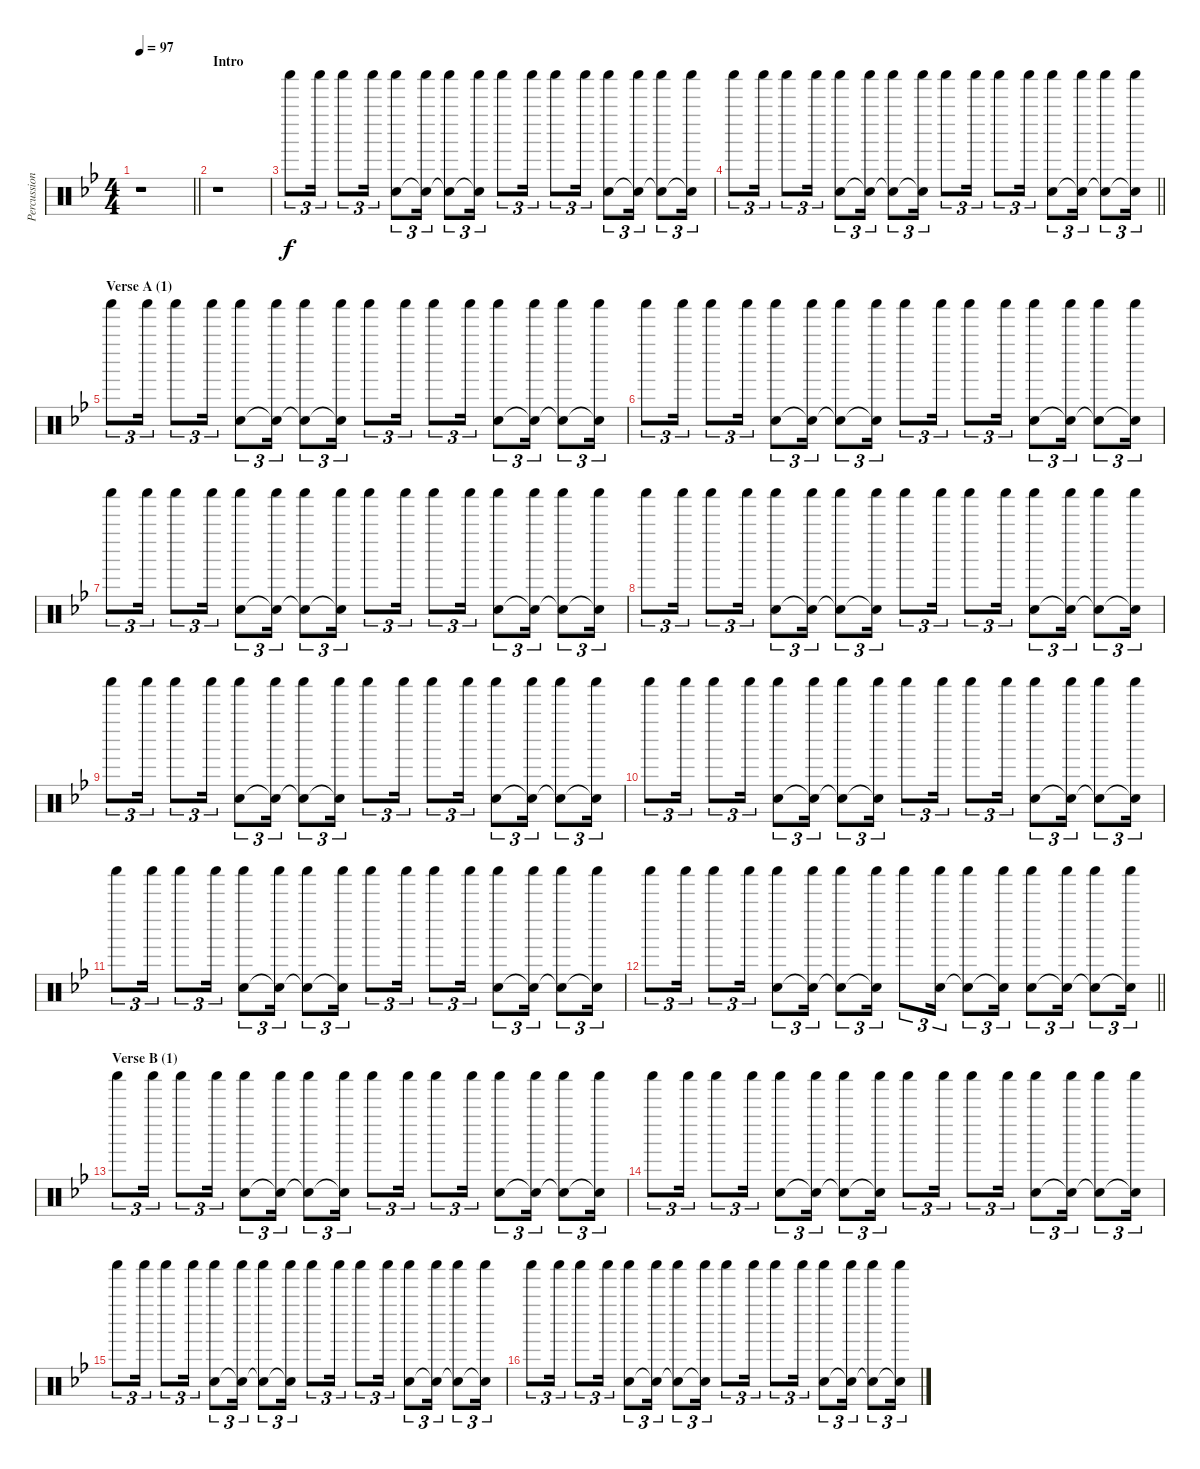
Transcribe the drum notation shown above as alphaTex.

\track ("Percussion" "Percussion") {instrument percussion}
\staff {score}
\articulation defaults
\ts (4 4)
\tempo 97
\clef neutral
\barLineRight lightlight
\ks bb
r.1{dy f} |
\section ("" "Intro")
r.1 |
"Shaker (hit)".8{tu (3 2)} "Shaker (hit)".16{tu (3 2)} "Shaker (hit)".8{tu (3 2)} "Shaker (hit)".16{tu (3 2)} ("Hand Clap (hit)" "Shaker (hit)").8{tu (3 2)} ("Snare (hit)"{t} "Shaker (hit)").16{tu (3 2)} ("Hand Clap (hit)"{t} "Shaker (hit)").8{tu (3 2)} ("Snare (hit)"{t} "Shaker (hit)").16{tu (3 2)} "Shaker (hit)".8{tu (3 2)} "Shaker (hit)".16{tu (3 2)} "Shaker (hit)".8{tu (3 2)} "Shaker (hit)".16{tu (3 2)} ("Hand Clap (hit)" "Shaker (hit)").8{tu (3 2)} ("Snare (hit)"{t} "Shaker (hit)").16{tu (3 2)} ("Hand Clap (hit)"{t} "Shaker (hit)").8{tu (3 2)} ("Snare (hit)"{t} "Shaker (hit)").16{tu (3 2)} |
\barLineRight lightlight "Shaker (hit)".8{tu (3 2)} "Shaker (hit)".16{tu (3 2)} "Shaker (hit)".8{tu (3 2)} "Shaker (hit)".16{tu (3 2)}
("Hand Clap (hit)" "Shaker (hit)").8{tu (3 2)} ("Snare (hit)"{t} "Shaker (hit)").16{tu (3 2)} ("Hand Clap (hit)"{t} "Shaker (hit)").8{tu (3 2)} ("Snare (hit)"{t} "Shaker (hit)").16{tu (3 2)} "Shaker (hit)".8{tu (3 2)} "Shaker (hit)".16{tu (3 2)} "Shaker (hit)".8{tu (3 2)} "Shaker (hit)".16{tu (3 2)} ("Hand Clap (hit)" "Shaker (hit)").8{tu (3 2)} ("Snare (hit)"{t} "Shaker (hit)").16{tu (3 2)} ("Hand Clap (hit)"{t} "Shaker (hit)").8{tu (3 2)} ("Snare (hit)"{t} "Shaker (hit)").16{tu (3 2)} |
\section ("" "Verse A (1)")
"Shaker (hit)".8{tu (3 2)} "Shaker (hit)".16{tu (3 2)} "Shaker (hit)".8{tu (3 2)} "Shaker (hit)".16{tu (3 2)} ("Hand Clap (hit)" "Shaker (hit)").8{tu (3 2)} ("Snare (hit)"{t} "Shaker (hit)").16{tu (3 2)} ("Hand Clap (hit)"{t} "Shaker (hit)").8{tu (3 2)} ("Snare (hit)"{t} "Shaker (hit)").16{tu (3 2)} "Shaker (hit)".8{tu (3 2)} "Shaker (hit)".16{tu (3 2)} "Shaker (hit)".8{tu (3 2)} "Shaker (hit)".16{tu (3 2)} ("Hand Clap (hit)" "Shaker (hit)").8{tu (3 2)} ("Snare (hit)"{t} "Shaker (hit)").16{tu (3 2)} ("Hand Clap (hit)"{t} "Shaker (hit)").8{tu (3 2)} ("Snare (hit)"{t} "Shaker (hit)").16{tu (3 2)} |
"Shaker (hit)".8{tu (3 2)} "Shaker (hit)".16{tu (3 2)} "Shaker (hit)".8{tu (3 2)} "Shaker (hit)".16{tu (3 2)} ("Hand Clap (hit)" "Shaker (hit)").8{tu (3 2)} ("Snare (hit)"{t} "Shaker (hit)").16{tu (3 2)} ("Hand Clap (hit)"{t} "Shaker (hit)").8{tu (3 2)} ("Snare (hit)"{t} "Shaker (hit)").16{tu (3 2)} "Shaker (hit)".8{tu (3 2)} "Shaker (hit)".16{tu (3 2)} "Shaker (hit)".8{tu (3 2)} "Shaker (hit)".16{tu (3 2)} ("Hand Clap (hit)" "Shaker (hit)").8{tu (3 2)} ("Snare (hit)"{t} "Shaker (hit)").16{tu (3 2)} ("Hand Clap (hit)"{t} "Shaker (hit)").8{tu (3 2)} ("Snare (hit)"{t} "Shaker (hit)").16{tu (3 2)} |
"Shaker (hit)".8{tu (3 2)} "Shaker (hit)".16{tu (3 2)} "Shaker (hit)".8{tu (3 2)} "Shaker (hit)".16{tu (3 2)} ("Hand Clap (hit)" "Shaker (hit)").8{tu (3 2)} ("Snare (hit)"{t} "Shaker (hit)").16{tu (3 2)} ("Hand Clap (hit)"{t} "Shaker (hit)").8{tu (3 2)} ("Snare (hit)"{t} "Shaker (hit)").16{tu (3 2)} "Shaker (hit)".8{tu (3 2)} "Shaker (hit)".16{tu (3 2)} "Shaker (hit)".8{tu (3 2)} "Shaker (hit)".16{tu (3 2)} ("Hand Clap (hit)" "Shaker (hit)").8{tu (3 2)} ("Snare (hit)"{t} "Shaker (hit)").16{tu (3 2)} ("Hand Clap (hit)"{t} "Shaker (hit)").8{tu (3 2)} ("Snare (hit)"{t} "Shaker (hit)").16{tu (3 2)} |
"Shaker (hit)".8{tu (3 2)} "Shaker (hit)".16{tu (3 2)} "Shaker (hit)".8{tu (3 2)} "Shaker (hit)".16{tu (3 2)} ("Hand Clap (hit)" "Shaker (hit)").8{tu (3 2)} ("Snare (hit)"{t} "Shaker (hit)").16{tu (3 2)} ("Hand Clap (hit)"{t} "Shaker (hit)").8{tu (3 2)} ("Snare (hit)"{t} "Shaker (hit)").16{tu (3 2)} "Shaker (hit)".8{tu (3 2)} "Shaker (hit)".16{tu (3 2)} "Shaker (hit)".8{tu (3 2)} "Shaker (hit)".16{tu (3 2)} ("Hand Clap (hit)" "Shaker (hit)").8{tu (3 2)} ("Snare (hit)"{t} "Shaker (hit)").16{tu (3 2)} ("Hand Clap (hit)"{t} "Shaker (hit)").8{tu (3 2)} ("Snare (hit)"{t} "Shaker (hit)").16{tu (3 2)} |
"Shaker (hit)".8{tu (3 2)} "Shaker (hit)".16{tu (3 2)} "Shaker (hit)".8{tu (3 2)} "Shaker (hit)".16{tu (3 2)} ("Hand Clap (hit)" "Shaker (hit)").8{tu (3 2)} ("Snare (hit)"{t} "Shaker (hit)").16{tu (3 2)} ("Hand Clap (hit)"{t} "Shaker (hit)").8{tu (3 2)} ("Snare (hit)"{t} "Shaker (hit)").16{tu (3 2)} "Shaker (hit)".8{tu (3 2)} "Shaker (hit)".16{tu (3 2)} "Shaker (hit)".8{tu (3 2)} "Shaker (hit)".16{tu (3 2)} ("Hand Clap (hit)" "Shaker (hit)").8{tu (3 2)} ("Snare (hit)"{t} "Shaker (hit)").16{tu (3 2)} ("Hand Clap (hit)"{t} "Shaker (hit)").8{tu (3 2)} ("Snare (hit)"{t} "Shaker (hit)").16{tu (3 2)} |
"Shaker (hit)".8{tu (3 2)} "Shaker (hit)".16{tu (3 2)} "Shaker (hit)".8{tu (3 2)} "Shaker (hit)".16{tu (3 2)} ("Hand Clap (hit)" "Shaker (hit)").8{tu (3 2)} ("Snare (hit)"{t} "Shaker (hit)").16{tu (3 2)} ("Hand Clap (hit)"{t} "Shaker (hit)").8{tu (3 2)} ("Snare (hit)"{t} "Shaker (hit)").16{tu (3 2)} "Shaker (hit)".8{tu (3 2)} "Shaker (hit)".16{tu (3 2)} "Shaker (hit)".8{tu (3 2)} "Shaker (hit)".16{tu (3 2)} ("Hand Clap (hit)" "Shaker (hit)").8{tu (3 2)} ("Snare (hit)"{t} "Shaker (hit)").16{tu (3 2)} ("Hand Clap (hit)"{t} "Shaker (hit)").8{tu (3 2)} ("Snare (hit)"{t} "Shaker (hit)").16{tu (3 2)} |
"Shaker (hit)".8{tu (3 2)} "Shaker (hit)".16{tu (3 2)} "Shaker (hit)".8{tu (3 2)} "Shaker (hit)".16{tu (3 2)} ("Hand Clap (hit)" "Shaker (hit)").8{tu (3 2)} ("Snare (hit)"{t} "Shaker (hit)").16{tu (3 2)} ("Hand Clap (hit)"{t} "Shaker (hit)").8{tu (3 2)} ("Snare (hit)"{t} "Shaker (hit)").16{tu (3 2)} "Shaker (hit)".8{tu (3 2)} "Shaker (hit)".16{tu (3 2)} "Shaker (hit)".8{tu (3 2)} "Shaker (hit)".16{tu (3 2)} ("Hand Clap (hit)" "Shaker (hit)").8{tu (3 2)} ("Snare (hit)"{t} "Shaker (hit)").16{tu (3 2)} ("Hand Clap (hit)"{t} "Shaker (hit)").8{tu (3 2)} ("Snare (hit)"{t} "Shaker (hit)").16{tu (3 2)} |
\barLineRight lightlight "Shaker (hit)".8{tu (3 2)} "Shaker (hit)".16{tu (3 2)} "Shaker (hit)".8{tu (3 2)} "Shaker (hit)".16{tu (3 2)}
("Hand Clap (hit)" "Shaker (hit)").8{tu (3 2)} ("Snare (hit)"{t} "Shaker (hit)").16{tu (3 2)} ("Hand Clap (hit)"{t} "Shaker (hit)").8{tu (3 2)} ("Snare (hit)"{t} "Shaker (hit)").16{tu (3 2)} "Shaker (hit)".8{tu (3 2)} ("Hand Clap (hit)" "Shaker (hit)").16{tu (3 2)} ("Snare (hit)"{t} "Shaker (hit)").8{tu (3 2)} ("Snare (hit)"{t} "Shaker (hit)").16{tu (3 2)} ("Hand Clap (hit)" "Shaker (hit)").8{tu (3 2)} ("Snare (hit)"{t} "Shaker (hit)").16{tu (3 2)} ("Hand Clap (hit)"{t} "Shaker (hit)").8{tu (3 2)} ("Snare (hit)"{t} "Shaker (hit)").16{tu (3 2)} |
\section ("" "Verse B (1)")
"Shaker (hit)".8{tu (3 2)} "Shaker (hit)".16{tu (3 2)} "Shaker (hit)".8{tu (3 2)} "Shaker (hit)".16{tu (3 2)} ("Hand Clap (hit)" "Shaker (hit)").8{tu (3 2)} ("Snare (hit)"{t} "Shaker (hit)").16{tu (3 2)} ("Hand Clap (hit)"{t} "Shaker (hit)").8{tu (3 2)} ("Snare (hit)"{t} "Shaker (hit)").16{tu (3 2)} "Shaker (hit)".8{tu (3 2)} "Shaker (hit)".16{tu (3 2)} "Shaker (hit)".8{tu (3 2)} "Shaker (hit)".16{tu (3 2)} ("Hand Clap (hit)" "Shaker (hit)").8{tu (3 2)} ("Snare (hit)"{t} "Shaker (hit)").16{tu (3 2)} ("Hand Clap (hit)"{t} "Shaker (hit)").8{tu (3 2)} ("Snare (hit)"{t} "Shaker (hit)").16{tu (3 2)} |
"Shaker (hit)".8{tu (3 2)} "Shaker (hit)".16{tu (3 2)} "Shaker (hit)".8{tu (3 2)} "Shaker (hit)".16{tu (3 2)} ("Hand Clap (hit)" "Shaker (hit)").8{tu (3 2)} ("Snare (hit)"{t} "Shaker (hit)").16{tu (3 2)} ("Hand Clap (hit)"{t} "Shaker (hit)").8{tu (3 2)} ("Snare (hit)"{t} "Shaker (hit)").16{tu (3 2)} "Shaker (hit)".8{tu (3 2)} "Shaker (hit)".16{tu (3 2)} "Shaker (hit)".8{tu (3 2)} "Shaker (hit)".16{tu (3 2)} ("Hand Clap (hit)" "Shaker (hit)").8{tu (3 2)} ("Snare (hit)"{t} "Shaker (hit)").16{tu (3 2)} ("Hand Clap (hit)"{t} "Shaker (hit)").8{tu (3 2)} ("Snare (hit)"{t} "Shaker (hit)").16{tu (3 2)} |
"Shaker (hit)".8{tu (3 2)} "Shaker (hit)".16{tu (3 2)} "Shaker (hit)".8{tu (3 2)} "Shaker (hit)".16{tu (3 2)} ("Hand Clap (hit)" "Shaker (hit)").8{tu (3 2)} ("Snare (hit)"{t} "Shaker (hit)").16{tu (3 2)} ("Hand Clap (hit)"{t} "Shaker (hit)").8{tu (3 2)} ("Snare (hit)"{t} "Shaker (hit)").16{tu (3 2)} "Shaker (hit)".8{tu (3 2)} "Shaker (hit)".16{tu (3 2)} "Shaker (hit)".8{tu (3 2)} "Shaker (hit)".16{tu (3 2)} ("Hand Clap (hit)" "Shaker (hit)").8{tu (3 2)} ("Snare (hit)"{t} "Shaker (hit)").16{tu (3 2)} ("Hand Clap (hit)"{t} "Shaker (hit)").8{tu (3 2)} ("Snare (hit)"{t} "Shaker (hit)").16{tu (3 2)} |
"Shaker (hit)".8{tu (3 2)} "Shaker (hit)".16{tu (3 2)} "Shaker (hit)".8{tu (3 2)} "Shaker (hit)".16{tu (3 2)} ("Hand Clap (hit)" "Shaker (hit)").8{tu (3 2)} ("Snare (hit)"{t} "Shaker (hit)").16{tu (3 2)} ("Hand Clap (hit)"{t} "Shaker (hit)").8{tu (3 2)} ("Snare (hit)"{t} "Shaker (hit)").16{tu (3 2)} "Shaker (hit)".8{tu (3 2)} "Shaker (hit)".16{tu (3 2)} "Shaker (hit)".8{tu (3 2)} "Shaker (hit)".16{tu (3 2)} ("Hand Clap (hit)" "Shaker (hit)").8{tu (3 2)} ("Snare (hit)"{t} "Shaker (hit)").16{tu (3 2)} ("Hand Clap (hit)"{t} "Shaker (hit)").8{tu (3 2)} ("Snare (hit)"{t} "Shaker (hit)").16{tu (3 2)}
